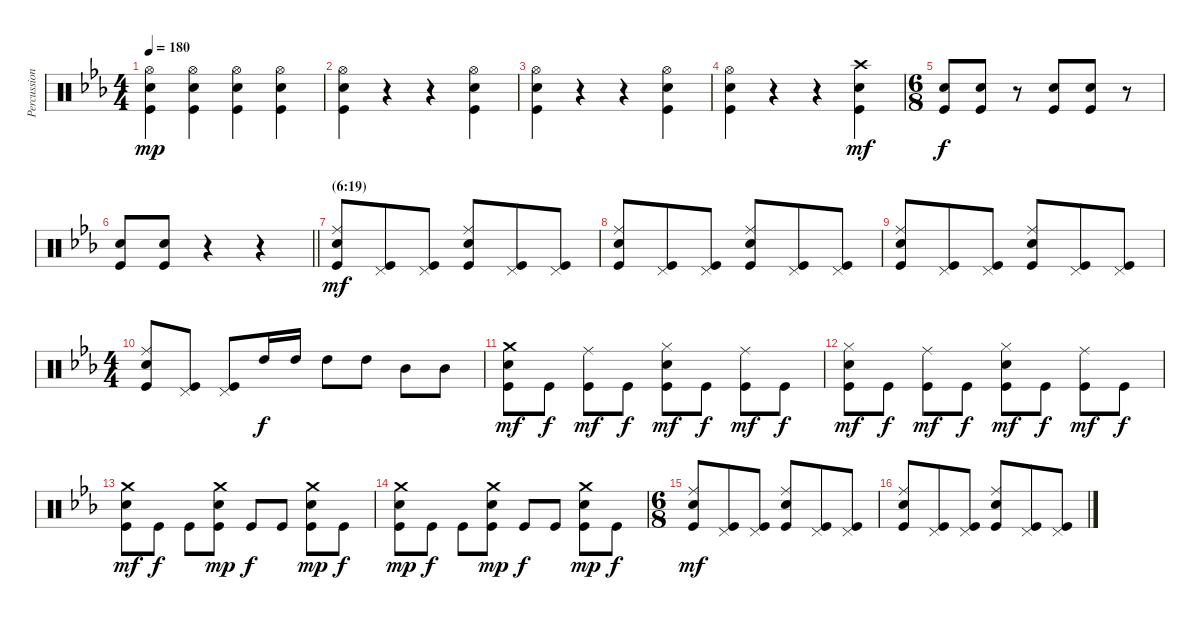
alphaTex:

\track ("Percussion" "Percussion") {instrument percussion}
\staff {score}
\articulation defaults
\ts (4 4)
\tempo 180
\clef neutral
\ks cminor
("Hi-Hat (open)" "Snare (hit) 2" "Kick (hit)").4{dy mp} ("Hi-Hat (open)" "Snare (hit) 2" "Kick (hit)").4 ("Hi-Hat (open)" "Snare (hit) 2" "Kick (hit)").4 ("Hi-Hat (open)" "Snare (hit) 2" "Kick (hit)").4 |
("Hi-Hat (open)" "Snare (hit) 2" "Kick (hit)").4 r.4 r.4 ("Hi-Hat (open)" "Snare (hit) 2" "Kick (hit)").4 |
("Hi-Hat (open)" "Snare (hit) 2" "Kick (hit)").4 r.4 r.4 ("Hi-Hat (open)" "Snare (hit) 2" "Kick (hit)").4 |
("Hi-Hat (open)" "Snare (hit) 2" "Kick (hit)").4 r.4 r.4 ("Crash high (hit)" "Snare (hit) 2" "Kick (hit)").4{dy mf} |
\ts (6 8)
("Snare (hit) 2" "Kick (hit)").8{dy f} ("Snare (hit) 2" "Kick (hit)").8 r.8 ("Snare (hit) 2" "Kick (hit)").8 ("Snare (hit) 2" "Kick (hit)").8 r.8 |
\barLineRight lightlight
("Snare (hit) 2" "Kick (hit)").8 ("Snare (hit) 2" "Kick (hit)").8 r.4 r.4 |
\section ("" "(6:19)")
("Ride (middle)" "Snare (hit) 2" "Kick (hit)").8{dy mf} ("Pedal Hi-Hat (hit)" "Kick (hit)").8 ("Pedal Hi-Hat (hit)" "Kick (hit)").8 ("Ride (middle)" "Snare (hit) 2" "Kick (hit)").8 ("Pedal Hi-Hat (hit)" "Kick (hit)").8 ("Pedal Hi-Hat (hit)" "Kick (hit)").8 |
("Ride (middle)" "Snare (hit) 2" "Kick (hit)").8 ("Pedal Hi-Hat (hit)" "Kick (hit)").8 ("Pedal Hi-Hat (hit)" "Kick (hit)").8 ("Ride (middle)" "Snare (hit) 2" "Kick (hit)").8 ("Pedal Hi-Hat (hit)" "Kick (hit)").8 ("Pedal Hi-Hat (hit)" "Kick (hit)").8 |
("Ride (middle)" "Snare (hit) 2" "Kick (hit)").8 ("Pedal Hi-Hat (hit)" "Kick (hit)").8 ("Pedal Hi-Hat (hit)" "Kick (hit)").8 ("Ride (middle)" "Snare (hit) 2" "Kick (hit)").8 ("Pedal Hi-Hat (hit)" "Kick (hit)").8 ("Pedal Hi-Hat (hit)" "Kick (hit)").8 |
\ts (4 4)
("Ride (middle)" "Snare (hit) 2" "Kick (hit)").8 ("Pedal Hi-Hat (hit)" "Kick (hit)").8 ("Pedal Hi-Hat (hit)" "Kick (hit)").8 "High Tom (hit)".16{dy f} "High Tom (hit)".16 "High Tom (hit)".8 "High Tom (hit)".8 "Mid Tom (hit)".8 "Mid Tom (hit)".8 |
("Crash medium (hit)" "Snare (hit) 2" "Kick (hit)").8{dy mf} "Kick (hit)".8{dy f} ("Ride (middle)" "Kick (hit)").8{dy mf} "Kick (hit)".8{dy f} ("Hi-Hat (closed)" "Snare (hit) 2" "Kick (hit)").8{dy mf} "Kick (hit)".8{dy f} ("Ride (middle)" "Kick (hit)").8{dy mf} "Kick (hit)".8{dy f} |
("Hi-Hat (closed)" "Snare (hit) 2" "Kick (hit)").8{dy mf} "Kick (hit)".8{dy f} ("Ride (middle)" "Kick (hit)").8{dy mf} "Kick (hit)".8{dy f} ("Hi-Hat (closed)" "Snare (hit) 2" "Kick (hit)").8{dy mf} "Kick (hit)".8{dy f} ("Ride (middle)" "Kick (hit)").8{dy mf} "Kick (hit)".8{dy f} |
("Crash medium (hit)" "Snare (hit) 2" "Kick (hit)").8{dy mf} "Kick (hit)".8{dy f} "Kick (hit)".8 ("Crash medium (hit)" "Snare (hit) 2" "Kick (hit)").8{dy mp} "Kick (hit)".8{dy f} "Kick (hit)".8 ("Crash medium (hit)" "Snare (hit) 2" "Kick (hit)").8{dy mp} "Kick (hit)".8{dy f} |
("Crash medium (hit)" "Snare (hit) 2" "Kick (hit)").8{dy mp} "Kick (hit)".8{dy f} "Kick (hit)".8 ("Crash medium (hit)" "Snare (hit) 2" "Kick (hit)").8{dy mp} "Kick (hit)".8{dy f} "Kick (hit)".8 ("Crash medium (hit)" "Snare (hit) 2" "Kick (hit)").8{dy mp} "Kick (hit)".8{dy f} |
\ts (6 8)
("Ride (middle)" "Snare (hit) 2" "Kick (hit)").8{dy mf} ("Pedal Hi-Hat (hit)" "Kick (hit)").8 ("Pedal Hi-Hat (hit)" "Kick (hit)").8 ("Ride (middle)" "Snare (hit) 2" "Kick (hit)").8 ("Pedal Hi-Hat (hit)" "Kick (hit)").8 ("Pedal Hi-Hat (hit)" "Kick (hit)").8 |
("Ride (middle)" "Snare (hit) 2" "Kick (hit)").8 ("Pedal Hi-Hat (hit)" "Kick (hit)").8 ("Pedal Hi-Hat (hit)" "Kick (hit)").8 ("Ride (middle)" "Snare (hit) 2" "Kick (hit)").8 ("Pedal Hi-Hat (hit)" "Kick (hit)").8 ("Pedal Hi-Hat (hit)" "Kick (hit)").8
